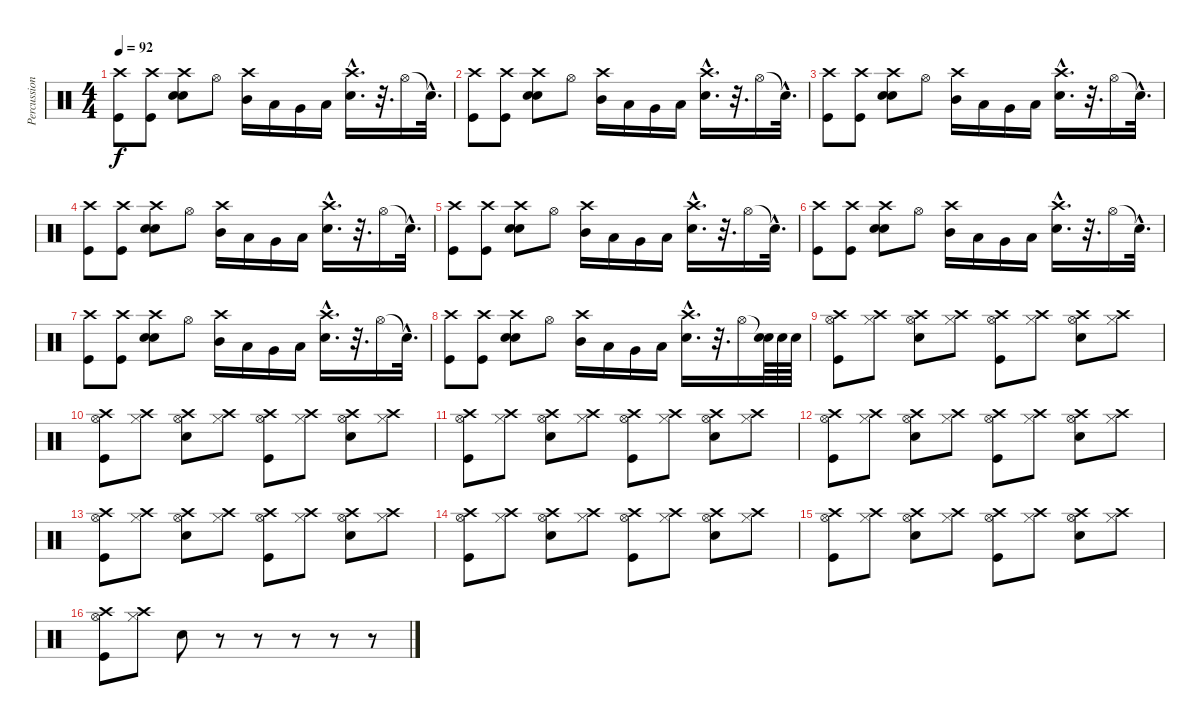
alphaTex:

\track ("Percussions (Etn)" "Percussion") {instrument percussion}
\staff {score}
\articulation defaults
\ts (4 4)
\tempo 92
\clef neutral
\ks c
("Crash high (hit)" "Kick (hit)").8{dy f} ("Crash high (hit)" "Kick (hit)").8 ("Crash high (hit)" "Snare (hit) 2" "Electric Snare (hit)").8{bd 120} "Hi-Hat (open)".8 ("Crash high (hit)" "Mid Tom (hit)").16 "Low Tom (hit)".16 "Very Low Tom (hit)".16 "Low Floor Tom (hit)".16 ("Crash high (hit)"{hac} "Electric Snare (hit)"{hac}).16{d} r.32{d} "Hi-Hat (open)".16 "Snare (hit)"{hac t}.32{d} |
("Crash high (hit)" "Kick (hit)").8 ("Crash high (hit)" "Kick (hit)").8 ("Crash high (hit)" "Snare (hit) 2" "Electric Snare (hit)").8{bd 120} "Hi-Hat (open)".8 ("Crash high (hit)" "Mid Tom (hit)").16 "Low Tom (hit)".16 "Very Low Tom (hit)".16 "Low Floor Tom (hit)".16 ("Crash high (hit)"{hac} "Electric Snare (hit)"{hac}).16{d} r.32{d} "Hi-Hat (open)".16 "Snare (hit)"{hac t}.32{d} |
("Crash high (hit)" "Kick (hit)").8 ("Crash high (hit)" "Kick (hit)").8 ("Crash high (hit)" "Snare (hit) 2" "Electric Snare (hit)").8{bd 120} "Hi-Hat (open)".8 ("Crash high (hit)" "Mid Tom (hit)").16 "Low Tom (hit)".16 "Very Low Tom (hit)".16 "Low Floor Tom (hit)".16 ("Crash high (hit)"{hac} "Electric Snare (hit)"{hac}).16{d} r.32{d} "Hi-Hat (open)".16 "Snare (hit)"{hac t}.32{d} |
("Crash high (hit)" "Kick (hit)").8 ("Crash high (hit)" "Kick (hit)").8 ("Crash high (hit)" "Snare (hit) 2" "Electric Snare (hit)").8{bd 120} "Hi-Hat (open)".8 ("Crash high (hit)" "Mid Tom (hit)").16 "Low Tom (hit)".16 "Very Low Tom (hit)".16 "Low Floor Tom (hit)".16 ("Crash high (hit)"{hac} "Electric Snare (hit)"{hac}).16{d} r.32{d} "Hi-Hat (open)".16 "Snare (hit)"{hac t}.32{d} |
("Crash high (hit)" "Kick (hit)").8 ("Crash high (hit)" "Kick (hit)").8 ("Crash high (hit)" "Snare (hit) 2" "Electric Snare (hit)").8{bd 120} "Hi-Hat (open)".8 ("Crash high (hit)" "Mid Tom (hit)").16 "Low Tom (hit)".16 "Very Low Tom (hit)".16 "Low Floor Tom (hit)".16 ("Crash high (hit)"{hac} "Electric Snare (hit)"{hac}).16{d} r.32{d} "Hi-Hat (open)".16 "Snare (hit)"{hac t}.32{d} |
("Crash high (hit)" "Kick (hit)").8 ("Crash high (hit)" "Kick (hit)").8 ("Crash high (hit)" "Snare (hit) 2" "Electric Snare (hit)").8{bd 120} "Hi-Hat (open)".8 ("Crash high (hit)" "Mid Tom (hit)").16 "Low Tom (hit)".16 "Very Low Tom (hit)".16 "Low Floor Tom (hit)".16 ("Crash high (hit)"{hac} "Electric Snare (hit)"{hac}).16{d} r.32{d} "Hi-Hat (open)".16 "Snare (hit)"{hac t}.32{d} |
("Crash high (hit)" "Kick (hit)").8 ("Crash high (hit)" "Kick (hit)").8 ("Crash high (hit)" "Snare (hit) 2" "Electric Snare (hit)").8{bd 120} "Hi-Hat (open)".8 ("Crash high (hit)" "Mid Tom (hit)").16 "Low Tom (hit)".16 "Very Low Tom (hit)".16 "Low Floor Tom (hit)".16 ("Crash high (hit)"{hac} "Electric Snare (hit)"{hac}).16{d} r.32{d} "Hi-Hat (open)".16 "Snare (hit)"{hac t}.32{d} |
("Crash high (hit)" "Kick (hit)").8 ("Crash high (hit)" "Kick (hit)").8 ("Crash high (hit)" "Snare (hit) 2" "Electric Snare (hit)").8{bd 120} "Hi-Hat (open)".8 ("Crash high (hit)" "Mid Tom (hit)").16 "Low Tom (hit)".16 "Very Low Tom (hit)".16 "Low Floor Tom (hit)".16 ("Crash high (hit)"{hac} "Electric Snare (hit)"{hac}).16{d} r.32{d} "Hi-Hat (open)".16 ("Snare (hit)"{t} "Electric Snare (hit)").64 "Electric Snare (hit)".64 "Electric Snare (hit)".64 |
("Hi-Hat (open)" "Crash high (hit)" "Kick (hit)").8 ("Hi-Hat (closed)" "Crash high (hit)").8 ("Hi-Hat (open)" "Crash high (hit)" "Electric Snare (hit)").8 ("Hi-Hat (closed)" "Crash high (hit)").8 ("Hi-Hat (open)" "Crash high (hit)" "Kick (hit)").8 ("Hi-Hat (closed)" "Crash high (hit)").8 ("Hi-Hat (open)" "Crash high (hit)" "Electric Snare (hit)").8 ("Hi-Hat (closed)" "Crash high (hit)").8 |
("Hi-Hat (open)" "Crash high (hit)" "Kick (hit)").8 ("Hi-Hat (closed)" "Crash high (hit)").8 ("Hi-Hat (open)" "Crash high (hit)" "Electric Snare (hit)").8 ("Hi-Hat (closed)" "Crash high (hit)").8 ("Hi-Hat (open)" "Crash high (hit)" "Kick (hit)").8 ("Hi-Hat (closed)" "Crash high (hit)").8 ("Hi-Hat (open)" "Crash high (hit)" "Electric Snare (hit)").8 ("Hi-Hat (closed)" "Crash high (hit)").8 |
("Hi-Hat (open)" "Crash high (hit)" "Kick (hit)").8 ("Hi-Hat (closed)" "Crash high (hit)").8 ("Hi-Hat (open)" "Crash high (hit)" "Electric Snare (hit)").8 ("Hi-Hat (closed)" "Crash high (hit)").8 ("Hi-Hat (open)" "Crash high (hit)" "Kick (hit)").8 ("Hi-Hat (closed)" "Crash high (hit)").8 ("Hi-Hat (open)" "Crash high (hit)" "Electric Snare (hit)").8 ("Hi-Hat (closed)" "Crash high (hit)").8 |
("Hi-Hat (open)" "Crash high (hit)" "Kick (hit)").8 ("Hi-Hat (closed)" "Crash high (hit)").8 ("Hi-Hat (open)" "Crash high (hit)" "Electric Snare (hit)").8 ("Hi-Hat (closed)" "Crash high (hit)").8 ("Hi-Hat (open)" "Crash high (hit)" "Kick (hit)").8 ("Hi-Hat (closed)" "Crash high (hit)").8 ("Hi-Hat (open)" "Crash high (hit)" "Electric Snare (hit)").8 ("Hi-Hat (closed)" "Crash high (hit)").8 |
("Hi-Hat (open)" "Crash high (hit)" "Kick (hit)").8 ("Hi-Hat (closed)" "Crash high (hit)").8 ("Hi-Hat (open)" "Crash high (hit)" "Electric Snare (hit)").8 ("Hi-Hat (closed)" "Crash high (hit)").8 ("Hi-Hat (open)" "Crash high (hit)" "Kick (hit)").8 ("Hi-Hat (closed)" "Crash high (hit)").8 ("Hi-Hat (open)" "Crash high (hit)" "Electric Snare (hit)").8 ("Hi-Hat (closed)" "Crash high (hit)").8 |
("Hi-Hat (open)" "Crash high (hit)" "Kick (hit)").8 ("Hi-Hat (closed)" "Crash high (hit)").8 ("Hi-Hat (open)" "Crash high (hit)" "Electric Snare (hit)").8 ("Hi-Hat (closed)" "Crash high (hit)").8 ("Hi-Hat (open)" "Crash high (hit)" "Kick (hit)").8 ("Hi-Hat (closed)" "Crash high (hit)").8 ("Hi-Hat (open)" "Crash high (hit)" "Electric Snare (hit)").8 ("Hi-Hat (closed)" "Crash high (hit)").8 |
("Hi-Hat (open)" "Crash high (hit)" "Kick (hit)").8 ("Hi-Hat (closed)" "Crash high (hit)").8 ("Hi-Hat (open)" "Crash high (hit)" "Electric Snare (hit)").8 ("Hi-Hat (closed)" "Crash high (hit)").8 ("Hi-Hat (open)" "Crash high (hit)" "Kick (hit)").8 ("Hi-Hat (closed)" "Crash high (hit)").8 ("Hi-Hat (open)" "Crash high (hit)" "Electric Snare (hit)").8 ("Hi-Hat (closed)" "Crash high (hit)").8 |
("Hi-Hat (open)" "Crash high (hit)" "Kick (hit)").8 ("Hi-Hat (closed)" "Crash high (hit)").8 "Electric Snare (hit)".8 r.8 r.8 r.8 r.8 r.8
